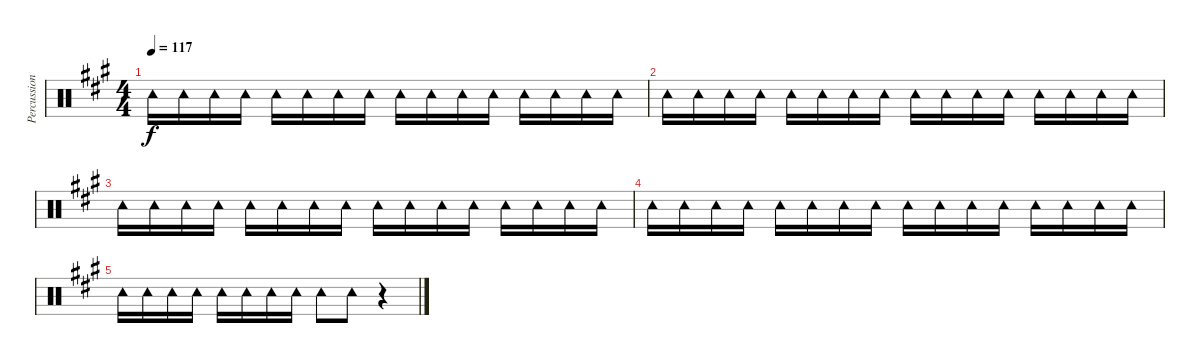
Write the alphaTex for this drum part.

\track ("Percussion" "Percussion") {instrument percussion}
\staff {score}
\articulation defaults
\ts (4 4)
\tempo 117
\clef neutral
\ks f#minor "Tambourine (hit)".16{dy f} "Tambourine (hit)".16 "Tambourine (hit)".16 "Tambourine (hit)".16 "Tambourine (hit)".16 "Tambourine (hit)".16 "Tambourine (hit)".16 "Tambourine (hit)".16 "Tambourine (hit)".16 "Tambourine (hit)".16 "Tambourine (hit)".16 "Tambourine (hit)".16 "Tambourine (hit)".16 "Tambourine (hit)".16 "Tambourine (hit)".16 "Tambourine (hit)".16
|
"Tambourine (hit)".16 "Tambourine (hit)".16 "Tambourine (hit)".16 "Tambourine (hit)".16 "Tambourine (hit)".16 "Tambourine (hit)".16 "Tambourine (hit)".16 "Tambourine (hit)".16 "Tambourine (hit)".16 "Tambourine (hit)".16 "Tambourine (hit)".16 "Tambourine (hit)".16 "Tambourine (hit)".16 "Tambourine (hit)".16 "Tambourine (hit)".16 "Tambourine (hit)".16 |
"Tambourine (hit)".16 "Tambourine (hit)".16 "Tambourine (hit)".16 "Tambourine (hit)".16 "Tambourine (hit)".16 "Tambourine (hit)".16 "Tambourine (hit)".16 "Tambourine (hit)".16 "Tambourine (hit)".16 "Tambourine (hit)".16 "Tambourine (hit)".16 "Tambourine (hit)".16 "Tambourine (hit)".16 "Tambourine (hit)".16 "Tambourine (hit)".16 "Tambourine (hit)".16 |
"Tambourine (hit)".16 "Tambourine (hit)".16 "Tambourine (hit)".16 "Tambourine (hit)".16 "Tambourine (hit)".16 "Tambourine (hit)".16 "Tambourine (hit)".16 "Tambourine (hit)".16 "Tambourine (hit)".16 "Tambourine (hit)".16 "Tambourine (hit)".16 "Tambourine (hit)".16 "Tambourine (hit)".16 "Tambourine (hit)".16 "Tambourine (hit)".16 "Tambourine (hit)".16 |
"Tambourine (hit)".16 "Tambourine (hit)".16 "Tambourine (hit)".16 "Tambourine (hit)".16 "Tambourine (hit)".16 "Tambourine (hit)".16 "Tambourine (hit)".16 "Tambourine (hit)".16 "Tambourine (hit)".8 "Tambourine (hit)".8 r.4
